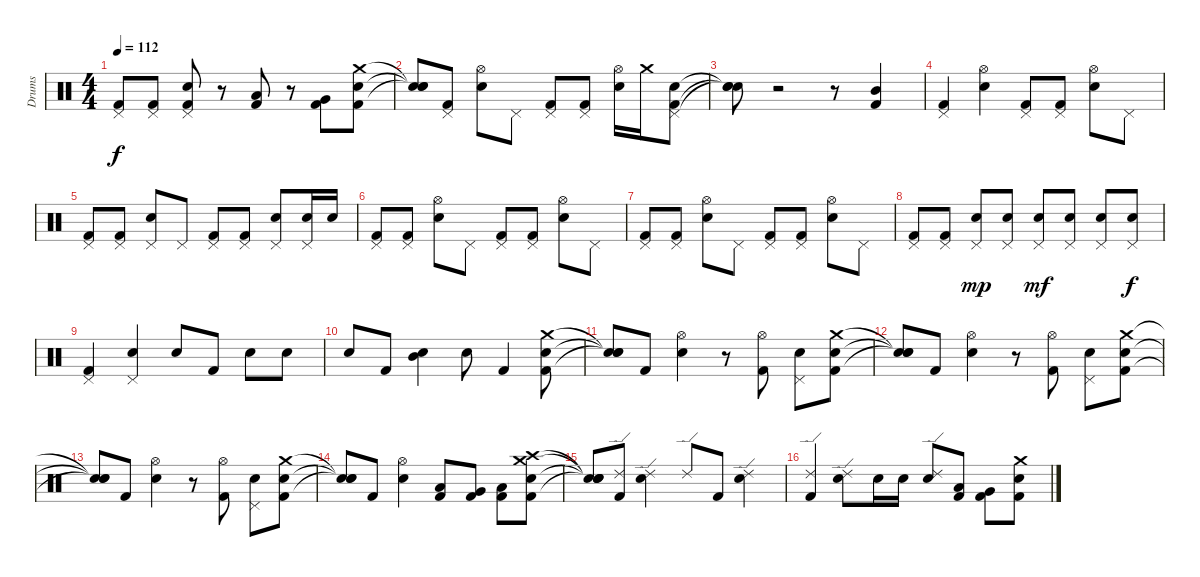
\track ("Drums" "Drums") {instrument percussion}
\staff {score}
\articulation defaults
\ts (4 4)
\tempo 112
\clef neutral
\ks c
("Pedal Hi-Hat (hit)" "Kick (hit) 2").8{dy f} ("Pedal Hi-Hat (hit)" "Kick (hit) 2").8 ("Pedal Hi-Hat (hit)" "Kick (hit) 2" "Snare (hit) 2").8 r.8 ("Kick (hit) 2" "Low Tom (hit)").8 r.8 ("Kick (hit) 2" "Very Low Tom (hit)").8 ("Crash medium (hit)" "Snare (hit) 2" "Kick (hit) 2").8 |
("Snare (hit)"{t} "Snare (hit)"{t} "Snare (hit)"{t}).8 ("Pedal Hi-Hat (hit)" "Kick (hit) 2").8 ("Hi-Hat (open)" "Snare (hit) 2").8 "Pedal Hi-Hat (hit)".8 ("Pedal Hi-Hat (hit)" "Kick (hit) 2").8 ("Pedal Hi-Hat (hit)" "Kick (hit) 2").8 ("Hi-Hat (open)" "Snare (hit) 2").16 "Crash medium (hit)".16 ("Pedal Hi-Hat (hit)" "Snare (hit) 2" "Kick (hit) 2").8 |
("Snare (hit)"{t} "Snare (hit)"{t} "Snare (hit)"{t}).8 r.2 r.8 ("Mid Tom (hit)" "Kick (hit) 2").4 |
("Pedal Hi-Hat (hit)" "Kick (hit) 2").4 ("Hi-Hat (open)" "Snare (hit) 2").4 ("Pedal Hi-Hat (hit)" "Kick (hit) 2").8 ("Kick (hit) 2" "Pedal Hi-Hat (hit)").8 ("Snare (hit) 2" "Hi-Hat (open)").8 "Pedal Hi-Hat (hit)".8 |
("Pedal Hi-Hat (hit)" "Kick (hit) 2").8 ("Pedal Hi-Hat (hit)" "Kick (hit) 2").8 ("Pedal Hi-Hat (hit)" "Snare (hit) 2").8 "Pedal Hi-Hat (hit)".8 ("Pedal Hi-Hat (hit)" "Kick (hit) 2").8 ("Pedal Hi-Hat (hit)" "Kick (hit) 2").8 ("Pedal Hi-Hat (hit)" "Snare (hit) 2").8 ("Pedal Hi-Hat (hit)" "Snare (hit) 2").16 "Snare (hit) 2".16 |
("Kick (hit) 2" "Pedal Hi-Hat (hit)").8 ("Pedal Hi-Hat (hit)" "Kick (hit) 2").8 ("Hi-Hat (open)" "Snare (hit) 2").8 "Pedal Hi-Hat (hit)".8 ("Pedal Hi-Hat (hit)" "Kick (hit) 2").8 ("Pedal Hi-Hat (hit)" "Kick (hit) 2").8 ("Hi-Hat (open)" "Snare (hit) 2").8 "Pedal Hi-Hat (hit)".8 |
("Pedal Hi-Hat (hit)" "Kick (hit) 2").8 ("Kick (hit) 2" "Pedal Hi-Hat (hit)").8 ("Hi-Hat (open)" "Snare (hit) 2").8 "Pedal Hi-Hat (hit)".8 ("Pedal Hi-Hat (hit)" "Kick (hit) 2").8 ("Pedal Hi-Hat (hit)" "Kick (hit) 2").8 ("Hi-Hat (open)" "Snare (hit) 2").8 "Pedal Hi-Hat (hit)".8 |
("Pedal Hi-Hat (hit)" "Kick (hit) 2").8 ("Pedal Hi-Hat (hit)" "Kick (hit) 2").8 ("Pedal Hi-Hat (hit)" "Snare (hit) 2").8{dy mp} ("Pedal Hi-Hat (hit)" "Snare (hit) 2").8 ("Pedal Hi-Hat (hit)" "Snare (hit) 2").8{dy mf} ("Pedal Hi-Hat (hit)" "Snare (hit) 2").8 ("Pedal Hi-Hat (hit)" "Snare (hit) 2").8 ("Pedal Hi-Hat (hit)" "Snare (hit) 2").8{dy f} |
("Pedal Hi-Hat (hit)" "Kick (hit) 2").4 ("Pedal Hi-Hat (hit)" "Snare (hit) 2").4 "Snare (hit) 2".8 "Kick (hit) 2".8 "Snare (hit) 2".8 "Snare (hit) 2".8 |
"Snare (hit) 2".8 "Kick (hit) 2".8 ("Mid Tom (hit)" "Snare (hit) 2").4 "Snare (hit) 2".8 "Kick (hit) 2".4 ("Crash medium (hit)" "Snare (hit) 2" "Kick (hit) 2").8 |
("Snare (hit)"{t} "Snare (hit)"{t} "Snare (hit)"{t}).8 "Kick (hit) 2".8 ("Snare (hit) 2" "Hi-Hat (open)").4 r.8 ("Kick (hit) 2" "Hi-Hat (open)").8 ("Snare (hit) 2" "Pedal Hi-Hat (hit)").8 ("Crash medium (hit)" "Snare (hit) 2" "Kick (hit) 2").8 |
("Snare (hit)"{t} "Snare (hit)"{t} "Snare (hit)"{t}).8 "Kick (hit) 2".8 ("Hi-Hat (open)" "Snare (hit) 2").4 r.8 ("Hi-Hat (open)" "Kick (hit) 2").8 ("Snare (hit) 2" "Pedal Hi-Hat (hit)").8 ("Snare (hit) 2" "Crash medium (hit)" "Kick (hit) 2").8 |
("Snare (hit)"{t} "Snare (hit)"{t} "Snare (hit)"{t}).8 "Kick (hit) 2".8 ("Snare (hit) 2" "Hi-Hat (open)").4 r.8 ("Kick (hit) 2" "Hi-Hat (open)").8 ("Snare (hit) 2" "Pedal Hi-Hat (hit)").8 ("Kick (hit) 2" "Snare (hit) 2" "Crash medium (hit)").8 |
("Snare (hit)"{t} "Snare (hit)"{t} "Snare (hit)"{t}).8 "Kick (hit) 2".8 ("Hi-Hat (open)" "Snare (hit) 2").4 ("Low Tom (hit)" "Kick (hit) 2").8 ("Very Low Tom (hit)" "Kick (hit) 2").8 ("Low Floor Tom (hit)" "Kick (hit) 2").8 ("Crash high (hit)" "Crash medium (hit)" "Snare (hit) 2" "Kick (hit) 2").8 |
("Snare (hit)"{t} "Snare (hit)"{t} "Snare (hit)"{t} "Snare (hit)"{t}).8 ("Kick (hit) 2" "Ride (edge) 2").8 ("Snare (hit) 2" "Ride (edge) 2").4 "Ride (edge) 2".8 "Kick (hit) 2".8 ("Snare (hit) 2" "Ride (edge) 2").4 |
("Kick (hit) 2" "Ride (edge) 2").4 ("Ride (edge) 2" "Snare (hit) 2").8 "Snare (hit) 2".16 "Snare (hit) 2".16 ("Ride (edge) 2" "Snare (hit) 2").8 ("Kick (hit) 2" "Low Tom (hit)").8 ("Kick (hit) 2" "Very Low Tom (hit)").8 ("Crash medium (hit)" "Snare (hit) 2" "Kick (hit) 2").8
